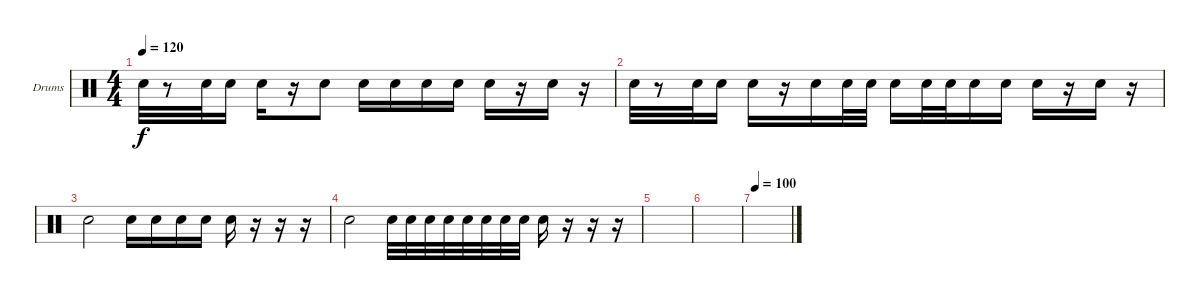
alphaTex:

\bracketExtendMode groupsimilarinstruments
\firstSystemTrackNameOrientation horizontal
\otherSystemsTrackNameOrientation horizontal
\track ("Drumkit" "Drums") {instrument percussion}
\staff {score}
\articulation defaults
\ts (4 4)
\tempo 120
\clef neutral
\ks c "Snare (hit) 2".32{dy f}
r.8 "Snare (hit) 2".32 "Snare (hit) 2".16 "Snare (hit) 2".16 r.16 "Snare (hit) 2".8 "Snare (hit) 2".16 "Snare (hit) 2".16 "Snare (hit) 2".16 "Snare (hit) 2".16 "Snare (hit) 2".16 r.16 "Snare (hit) 2".16 r.16 |
"Snare (hit) 2".32 r.8 "Snare (hit) 2".32 "Snare (hit) 2".16 "Snare (hit) 2".16 r.16 "Snare (hit) 2".16 "Snare (hit) 2".32 "Snare (hit) 2".32 "Snare (hit) 2".16 "Snare (hit) 2".32 "Snare (hit) 2".32 "Snare (hit) 2".16 "Snare (hit) 2".16 "Snare (hit) 2".16 r.16 "Snare (hit) 2".16 r.16 |
"Snare (hit) 2".2 "Snare (hit) 2".16 "Snare (hit) 2".16 "Snare (hit) 2".16 "Snare (hit) 2".16 "Snare (hit) 2".16 r.16 r.16 r.16 |
\scale
0.190397 "Snare (hit) 2".2 "Snare (hit) 2".32 "Snare (hit) 2".32 "Snare (hit) 2".32 "Snare (hit) 2".32 "Snare (hit) 2".32 "Snare (hit) 2".32 "Snare (hit) 2".32 "Snare (hit) 2".32 "Snare (hit) 2".16 r.16 r.16 r.16 |
\scale
0.228602 |
\scale
0.184592 |
\tempo (100 0.00625)
\scale
0.394946
